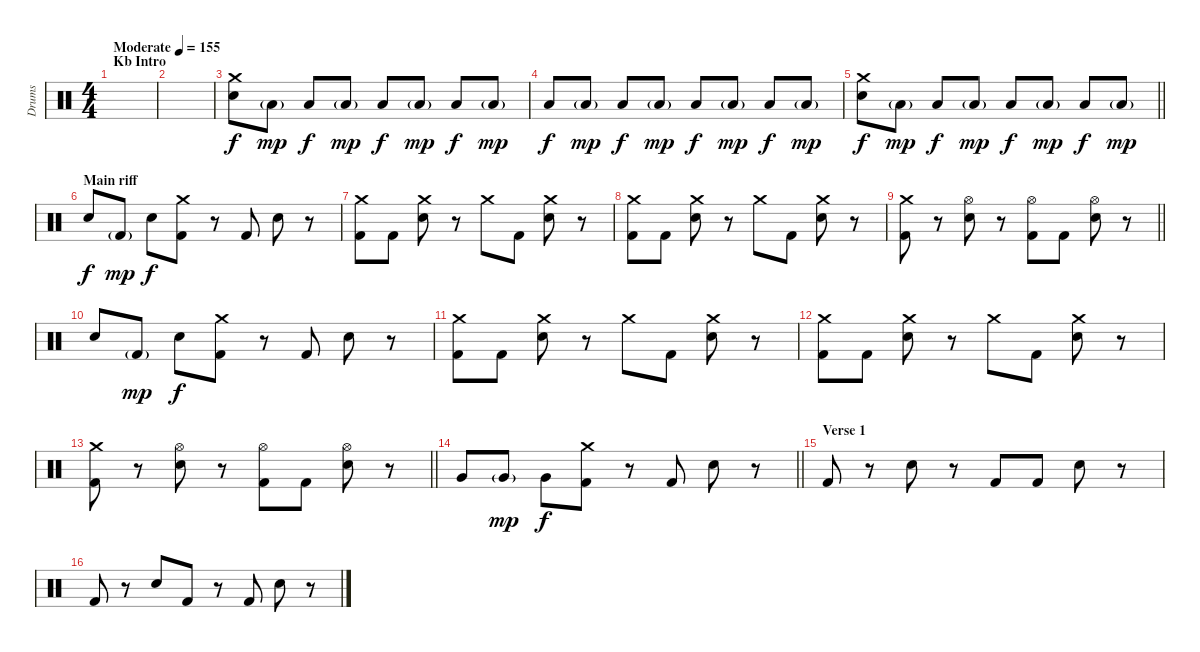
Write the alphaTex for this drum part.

\track ("Drums" "Drums") {instrument percussion}
\staff {score}
\articulation defaults
\ts (4 4)
\section ("" "Kb Intro")
\tempo (155 "Moderate")
\clef neutral
\ks c
|
|
("Crash medium (hit)" "Electric Snare (hit)").8 "Low Tom (hit)"{g}.8{dy mp} "Low Tom (hit)".8{dy f} "Low Tom (hit)"{g}.8{dy mp} "Low Tom (hit)".8{dy f} "Low Tom (hit)"{g}.8{dy mp} "Low Tom (hit)".8{dy f} "Low Tom (hit)"{g}.8{dy mp} |
"Low Tom (hit)".8{dy f} "Low Tom (hit)"{g}.8{dy mp} "Low Tom (hit)".8{dy f} "Low Tom (hit)"{g}.8{dy mp} "Low Tom (hit)".8{dy f} "Low Tom (hit)"{g}.8{dy mp} "Low Tom (hit)".8{dy f} "Low Tom (hit)"{g}.8{dy mp} |
\barLineRight lightlight
("Crash medium (hit)" "Electric Snare (hit)").8{dy f} "Low Tom (hit)"{g}.8{dy mp} "Low Tom (hit)".8{dy f} "Low Tom (hit)"{g}.8{dy mp} "Low Tom (hit)".8{dy f} "Low Tom (hit)"{g}.8{dy mp} "Low Tom (hit)".8{dy f} "Low Tom (hit)"{g}.8{dy mp} |
\section ("" "Main riff")
"Electric Snare (hit)".8{dy f} "Kick (hit) 2"{g}.8{dy mp} "Electric Snare (hit)".8{dy f} ("Crash medium (hit)" "Kick (hit) 2").8 r.8 "Kick (hit) 2".8 "Electric Snare (hit)".8 r.8 |
("Crash medium (hit)" "Kick (hit) 2").8 "Kick (hit) 2".8 ("Crash medium (hit)" "Electric Snare (hit)").8 r.8 "Crash medium (hit)".8 "Kick (hit) 2".8 ("Crash medium (hit)" "Electric Snare (hit)").8 r.8 |
("Crash medium (hit)" "Kick (hit) 2").8 "Kick (hit) 2".8 ("Crash medium (hit)" "Electric Snare (hit)").8 r.8 "Crash medium (hit)".8 "Kick (hit) 2".8 ("Crash medium (hit)" "Electric Snare (hit)").8 r.8 |
\barLineRight lightlight
("Crash medium (hit)" "Kick (hit) 2").8 r.8 ("Hi-Hat (open)" "Electric Snare (hit)").8 r.8 ("Hi-Hat (open)" "Kick (hit) 2").8 "Kick (hit) 2".8 ("Hi-Hat (open)" "Electric Snare (hit)").8 r.8 |
"Electric Snare (hit)".8 "Kick (hit) 2"{g}.8{dy mp} "Electric Snare (hit)".8{dy f} ("Crash medium (hit)" "Kick (hit) 2").8 r.8 "Kick (hit) 2".8 "Electric Snare (hit)".8 r.8 |
("Crash medium (hit)" "Kick (hit) 2").8 "Kick (hit) 2".8 ("Crash medium (hit)" "Electric Snare (hit)").8 r.8 "Crash medium (hit)".8 "Kick (hit) 2".8 ("Crash medium (hit)" "Electric Snare (hit)").8 r.8 |
("Crash medium (hit)" "Kick (hit) 2").8 "Kick (hit) 2".8 ("Crash medium (hit)" "Electric Snare (hit)").8 r.8 "Crash medium (hit)".8 "Kick (hit) 2".8 ("Crash medium (hit)" "Electric Snare (hit)").8 r.8 |
\barLineRight lightlight
("Crash medium (hit)" "Kick (hit) 2").8 r.8 ("Hi-Hat (open)" "Electric Snare (hit)").8 r.8 ("Hi-Hat (open)" "Kick (hit) 2").8 "Kick (hit) 2".8 ("Hi-Hat (open)" "Electric Snare (hit)").8 r.8 |
\barLineRight lightlight "Very Low Tom (hit)".8 "Very Low Tom (hit)"{g}.8{dy mp} "Very Low Tom (hit)".8{dy f}
("Crash medium (hit)" "Kick (hit) 2").8 r.8 "Kick (hit) 2".8 "Electric Snare (hit)".8 r.8 |
\section ("" "Verse 1")
"Kick (hit) 2".8{volume 7} r.8 "Electric Snare (hit)".8 r.8 "Kick (hit) 2".8 "Kick (hit) 2".8 "Electric Snare (hit)".8 r.8 |
"Kick (hit) 2".8 r.8 "Electric Snare (hit)".8 "Kick (hit) 2".8 r.8 "Kick (hit) 2".8 "Electric Snare (hit)".8 r.8
